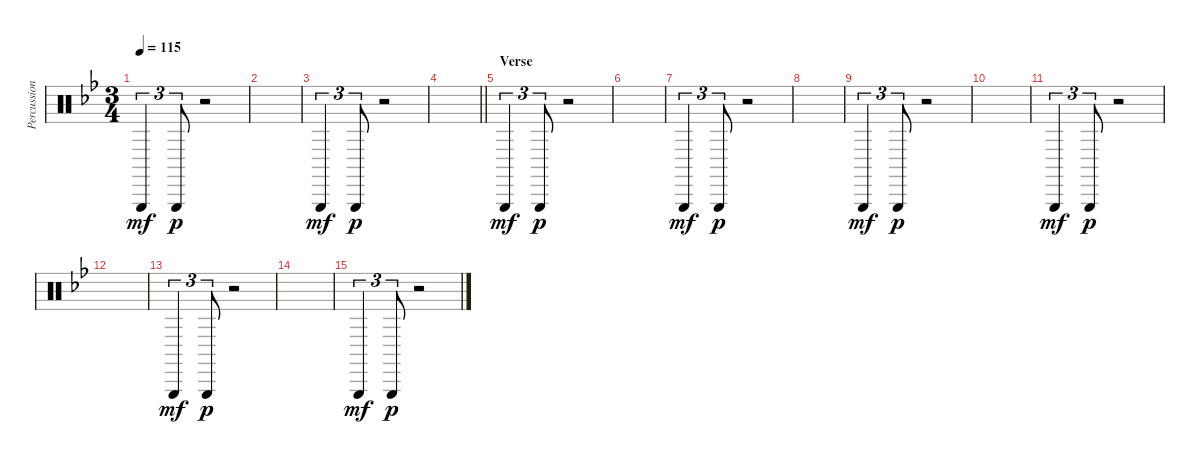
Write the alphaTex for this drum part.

\track ("Percussion" "Percussion") {instrument percussion}
\staff {score}
\articulation defaults
\ts (3 4)
\tempo 115
\clef neutral
\ks gminor "Triangle (hit)".4{tu (3 2) dy mf} "Triangle (hit)".8{tu (3 2) dy p}
r.2 |
|
"Triangle (hit)".4{tu (3 2) dy mf} "Triangle (hit)".8{tu (3 2) dy p} r.2 |
\barLineRight lightlight
|
\section ("" "Verse")
"Triangle (hit)".4{tu (3 2) dy mf} "Triangle (hit)".8{tu (3 2) dy p} r.2 |
|
"Triangle (hit)".4{tu (3 2) dy mf} "Triangle (hit)".8{tu (3 2) dy p} r.2 |
|
"Triangle (hit)".4{tu (3 2) dy mf} "Triangle (hit)".8{tu (3 2) dy p} r.2 |
|
"Triangle (hit)".4{tu (3 2) dy mf} "Triangle (hit)".8{tu (3 2) dy p} r.2 |
|
"Triangle (hit)".4{tu (3 2) dy mf} "Triangle (hit)".8{tu (3 2) dy p} r.2 |
|
"Triangle (hit)".4{tu (3 2) dy mf} "Triangle (hit)".8{tu (3 2) dy p} r.2
